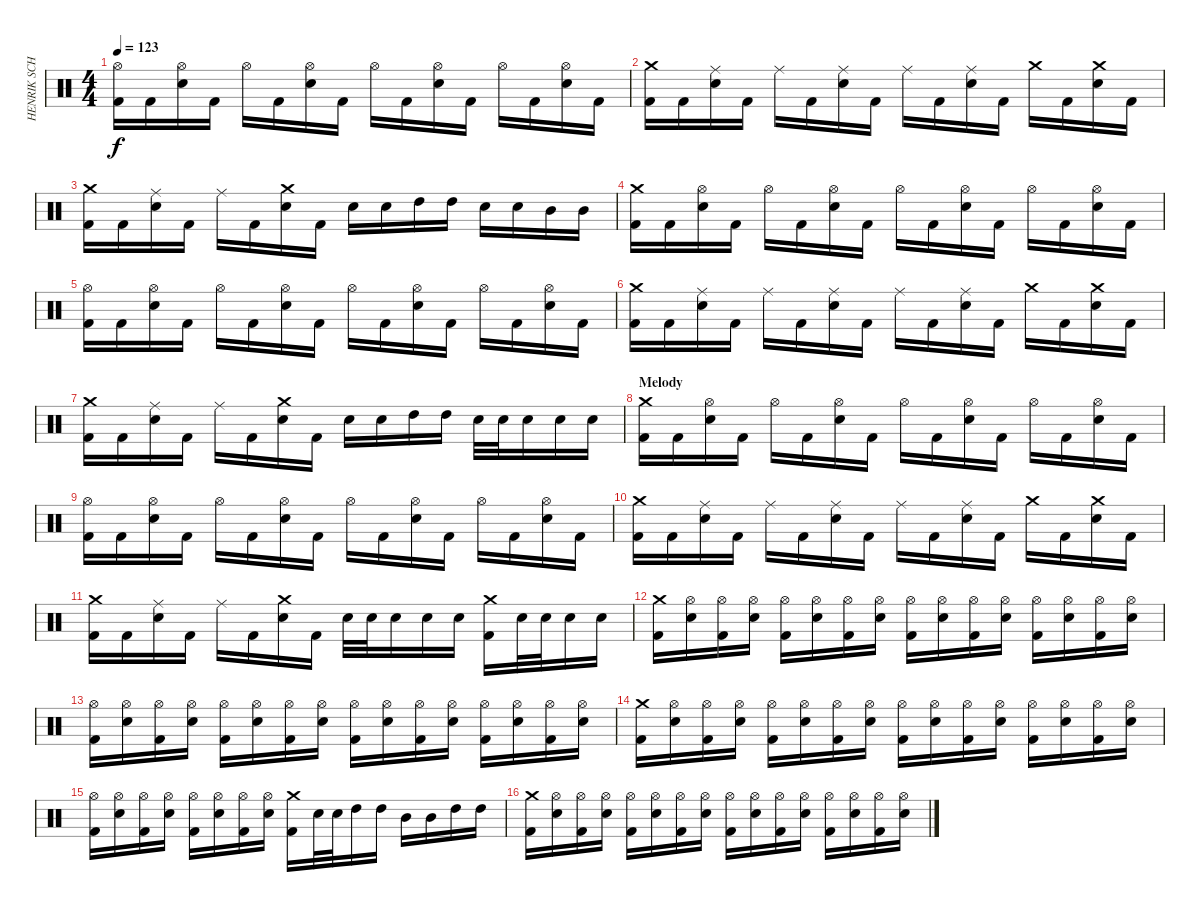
\track ("HENRIK SCHÖNSTÖM " "HENRIK SCH") {instrument percussion}
\staff {score}
\articulation defaults
\ts (4 4)
\tempo 123
\clef neutral
\ks c
("Hi-Hat (open)" "Kick (hit) 2").16{dy f} "Kick (hit) 2".16 ("Hi-Hat (open)" "Snare (hit) 2").16 "Kick (hit) 2".16 "Hi-Hat (open)".16 "Kick (hit) 2".16 ("Hi-Hat (open)" "Snare (hit) 2").16 "Kick (hit) 2".16 "Hi-Hat (open)".16 "Kick (hit) 2".16 ("Hi-Hat (open)" "Snare (hit) 2").16 "Kick (hit) 2".16 "Hi-Hat (open)".16 "Kick (hit) 2".16 ("Hi-Hat (open)" "Snare (hit) 2").16 "Kick (hit) 2".16 |
("Crash medium (hit)" "Kick (hit) 2").16 "Kick (hit) 2".16 ("Ride (middle)" "Snare (hit) 2").16 "Kick (hit) 2".16 "Ride (middle)".16 "Kick (hit) 2".16 ("Ride (middle)" "Snare (hit) 2").16 "Kick (hit) 2".16 "Ride (middle)".16 "Kick (hit) 2".16 ("Ride (middle)" "Snare (hit) 2").16 "Kick (hit) 2".16 "Crash medium (hit)".16 "Kick (hit) 2".16 ("Crash medium (hit)" "Snare (hit) 2").16 "Kick (hit) 2".16 |
("Crash medium (hit)" "Kick (hit) 2").16 "Kick (hit) 2".16 ("Ride (middle)" "Snare (hit) 2").16 "Kick (hit) 2".16 "Ride (middle)".16 "Kick (hit) 2".16 ("Crash medium (hit)" "Snare (hit) 2").16 "Kick (hit) 2".16 "Snare (hit) 2".16 "Snare (hit) 2".16 "High Tom (hit)".16 "High Tom (hit)".16 "Snare (hit) 2".16 "Snare (hit) 2".16 "Mid Tom (hit)".16 "Mid Tom (hit)".16 |
("Crash medium (hit)" "Kick (hit) 2").16 "Kick (hit) 2".16 ("Hi-Hat (open)" "Snare (hit) 2").16 "Kick (hit) 2".16 "Hi-Hat (open)".16 "Kick (hit) 2".16 ("Hi-Hat (open)" "Snare (hit) 2").16 "Kick (hit) 2".16 "Hi-Hat (open)".16 "Kick (hit) 2".16 ("Hi-Hat (open)" "Snare (hit) 2").16 "Kick (hit) 2".16 "Hi-Hat (open)".16 "Kick (hit) 2".16 ("Hi-Hat (open)" "Snare (hit) 2").16 "Kick (hit) 2".16 |
("Hi-Hat (open)" "Kick (hit) 2").16 "Kick (hit) 2".16 ("Hi-Hat (open)" "Snare (hit) 2").16 "Kick (hit) 2".16 "Hi-Hat (open)".16 "Kick (hit) 2".16 ("Hi-Hat (open)" "Snare (hit) 2").16 "Kick (hit) 2".16 "Hi-Hat (open)".16 "Kick (hit) 2".16 ("Hi-Hat (open)" "Snare (hit) 2").16 "Kick (hit) 2".16 "Hi-Hat (open)".16 "Kick (hit) 2".16 ("Hi-Hat (open)" "Snare (hit) 2").16 "Kick (hit) 2".16 |
("Crash medium (hit)" "Kick (hit) 2").16 "Kick (hit) 2".16 ("Ride (middle)" "Snare (hit) 2").16 "Kick (hit) 2".16 "Ride (middle)".16 "Kick (hit) 2".16 ("Ride (middle)" "Snare (hit) 2").16 "Kick (hit) 2".16 "Ride (middle)".16 "Kick (hit) 2".16 ("Ride (middle)" "Snare (hit) 2").16 "Kick (hit) 2".16 "Crash medium (hit)".16 "Kick (hit) 2".16 ("Crash medium (hit)" "Snare (hit) 2").16 "Kick (hit) 2".16 |
("Crash medium (hit)" "Kick (hit) 2").16 "Kick (hit) 2".16 ("Ride (middle)" "Snare (hit) 2").16 "Kick (hit) 2".16 "Ride (middle)".16 "Kick (hit) 2".16 ("Crash medium (hit)" "Snare (hit) 2").16 "Kick (hit) 2".16 "Snare (hit) 2".16 "Snare (hit) 2".16 "High Tom (hit)".16 "High Tom (hit)".16 "Snare (hit) 2".32 "Snare (hit) 2".32 "Snare (hit) 2".16 "Snare (hit) 2".16 "Snare (hit) 2".16 |
\section ("" "Melody")
("Crash medium (hit)" "Kick (hit) 2").16 "Kick (hit) 2".16 ("Hi-Hat (open)" "Snare (hit) 2").16 "Kick (hit) 2".16 "Hi-Hat (open)".16 "Kick (hit) 2".16 ("Hi-Hat (open)" "Snare (hit) 2").16 "Kick (hit) 2".16 "Hi-Hat (open)".16 "Kick (hit) 2".16 ("Hi-Hat (open)" "Snare (hit) 2").16 "Kick (hit) 2".16 "Hi-Hat (open)".16 "Kick (hit) 2".16 ("Hi-Hat (open)" "Snare (hit) 2").16 "Kick (hit) 2".16 |
("Hi-Hat (open)" "Kick (hit) 2").16 "Kick (hit) 2".16 ("Hi-Hat (open)" "Snare (hit) 2").16 "Kick (hit) 2".16 "Hi-Hat (open)".16 "Kick (hit) 2".16 ("Hi-Hat (open)" "Snare (hit) 2").16 "Kick (hit) 2".16 "Hi-Hat (open)".16 "Kick (hit) 2".16 ("Hi-Hat (open)" "Snare (hit) 2").16 "Kick (hit) 2".16 "Hi-Hat (open)".16 "Kick (hit) 2".16 ("Hi-Hat (open)" "Snare (hit) 2").16 "Kick (hit) 2".16 |
("Crash medium (hit)" "Kick (hit) 2").16 "Kick (hit) 2".16 ("Ride (middle)" "Snare (hit) 2").16 "Kick (hit) 2".16 "Ride (middle)".16 "Kick (hit) 2".16 ("Ride (middle)" "Snare (hit) 2").16 "Kick (hit) 2".16 "Ride (middle)".16 "Kick (hit) 2".16 ("Ride (middle)" "Snare (hit) 2").16 "Kick (hit) 2".16 "Crash medium (hit)".16 "Kick (hit) 2".16 ("Crash medium (hit)" "Snare (hit) 2").16 "Kick (hit) 2".16 |
("Crash medium (hit)" "Kick (hit) 2").16 "Kick (hit) 2".16 ("Ride (middle)" "Snare (hit) 2").16 "Kick (hit) 2".16 "Ride (middle)".16 "Kick (hit) 2".16 ("Crash medium (hit)" "Snare (hit) 2").16 "Kick (hit) 2".16 "Snare (hit) 2".32 "Snare (hit) 2".32 "Snare (hit) 2".16 "Snare (hit) 2".16 "Snare (hit) 2".16 ("Crash medium (hit)" "Kick (hit) 2").16 "Snare (hit) 2".32 "Snare (hit) 2".32 "Snare (hit) 2".16 "Snare (hit) 2".16 |
("Crash medium (hit)" "Kick (hit) 2").16 ("Hi-Hat (open)" "Snare (hit) 2").16 ("Hi-Hat (open)" "Kick (hit) 2").16 ("Hi-Hat (open)" "Snare (hit) 2").16 ("Hi-Hat (open)" "Kick (hit) 2").16 ("Hi-Hat (open)" "Snare (hit) 2").16 ("Hi-Hat (open)" "Kick (hit) 2").16 ("Hi-Hat (open)" "Snare (hit) 2").16 ("Hi-Hat (open)" "Kick (hit) 2").16 ("Hi-Hat (open)" "Snare (hit) 2").16 ("Hi-Hat (open)" "Kick (hit) 2").16 ("Hi-Hat (open)" "Snare (hit) 2").16 ("Hi-Hat (open)" "Kick (hit) 2").16 ("Hi-Hat (open)" "Snare (hit) 2").16 ("Hi-Hat (open)" "Kick (hit) 2").16 ("Hi-Hat (open)" "Snare (hit) 2").16 |
("Hi-Hat (open)" "Kick (hit) 2").16 ("Hi-Hat (open)" "Snare (hit) 2").16 ("Hi-Hat (open)" "Kick (hit) 2").16 ("Hi-Hat (open)" "Snare (hit) 2").16 ("Hi-Hat (open)" "Kick (hit) 2").16 ("Hi-Hat (open)" "Snare (hit) 2").16 ("Hi-Hat (open)" "Kick (hit) 2").16 ("Hi-Hat (open)" "Snare (hit) 2").16 ("Hi-Hat (open)" "Kick (hit) 2").16 ("Hi-Hat (open)" "Snare (hit) 2").16 ("Hi-Hat (open)" "Kick (hit) 2").16 ("Hi-Hat (open)" "Snare (hit) 2").16 ("Hi-Hat (open)" "Kick (hit) 2").16 ("Hi-Hat (open)" "Snare (hit) 2").16 ("Hi-Hat (open)" "Kick (hit) 2").16 ("Hi-Hat (open)" "Snare (hit) 2").16 |
("Crash medium (hit)" "Kick (hit) 2").16 ("Hi-Hat (open)" "Snare (hit) 2").16 ("Hi-Hat (open)" "Kick (hit) 2").16 ("Hi-Hat (open)" "Snare (hit) 2").16 ("Hi-Hat (open)" "Kick (hit) 2").16 ("Hi-Hat (open)" "Snare (hit) 2").16 ("Hi-Hat (open)" "Kick (hit) 2").16 ("Hi-Hat (open)" "Snare (hit) 2").16 ("Hi-Hat (open)" "Kick (hit) 2").16 ("Hi-Hat (open)" "Snare (hit) 2").16 ("Hi-Hat (open)" "Kick (hit) 2").16 ("Hi-Hat (open)" "Snare (hit) 2").16 ("Hi-Hat (open)" "Kick (hit) 2").16 ("Hi-Hat (open)" "Snare (hit) 2").16 ("Hi-Hat (open)" "Kick (hit) 2").16 ("Hi-Hat (open)" "Snare (hit) 2").16 |
("Hi-Hat (open)" "Kick (hit) 2").16 ("Hi-Hat (open)" "Snare (hit) 2").16 ("Hi-Hat (open)" "Kick (hit) 2").16 ("Hi-Hat (open)" "Snare (hit) 2").16 ("Hi-Hat (open)" "Kick (hit) 2").16 ("Hi-Hat (open)" "Snare (hit) 2").16 ("Hi-Hat (open)" "Kick (hit) 2").16 ("Hi-Hat (open)" "Snare (hit) 2").16 ("Crash medium (hit)" "Kick (hit) 2").16 "Snare (hit) 2".32 "Snare (hit) 2".32 "High Tom (hit)".16 "High Tom (hit)".16 "Mid Tom (hit)".16 "Mid Tom (hit)".16 "High Tom (hit)".16 "High Tom (hit)".16 |
("Crash medium (hit)" "Kick (hit) 2").16 ("Hi-Hat (open)" "Snare (hit) 2").16 ("Hi-Hat (open)" "Kick (hit) 2").16 ("Hi-Hat (open)" "Snare (hit) 2").16 ("Hi-Hat (open)" "Kick (hit) 2").16 ("Hi-Hat (open)" "Snare (hit) 2").16 ("Hi-Hat (open)" "Kick (hit) 2").16 ("Hi-Hat (open)" "Snare (hit) 2").16 ("Hi-Hat (open)" "Kick (hit) 2").16 ("Hi-Hat (open)" "Snare (hit) 2").16 ("Hi-Hat (open)" "Kick (hit) 2").16 ("Hi-Hat (open)" "Snare (hit) 2").16 ("Hi-Hat (open)" "Kick (hit) 2").16 ("Hi-Hat (open)" "Snare (hit) 2").16 ("Hi-Hat (open)" "Kick (hit) 2").16 ("Hi-Hat (open)" "Snare (hit) 2").16
